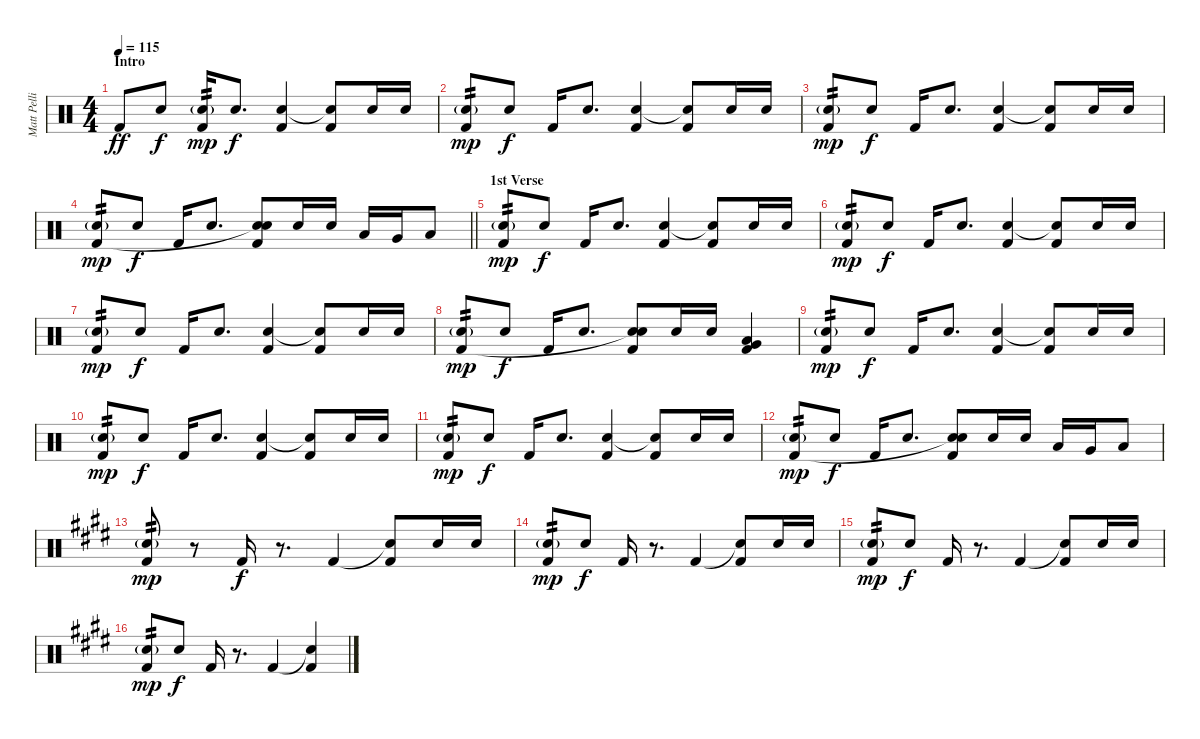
\track ("Matt Pellissier" "Matt Pelli") {instrument percussion}
\staff {score}
\articulation defaults
\ts (4 4)
\section ("" "Intro")
\tempo 115
\clef neutral
\ks c "Kick (hit) 2".8{dy ff} "Snare (hit) 2".8{dy f}
("Snare (hit) 2"{g} "Kick (hit) 2").16{tp 2 dy mp} "Snare (hit) 2".8{d dy f} ("Snare (hit) 2" "Kick (hit) 2").4 ("Snare (hit)"{t} "Kick (hit) 2").8 "Snare (hit) 2".16 "Snare (hit) 2".16 |
("Snare (hit) 2"{g} "Kick (hit) 2").8{tp 2 dy mp} "Snare (hit) 2".8{dy f} "Kick (hit) 2".16 "Snare (hit) 2".8{d} ("Snare (hit) 2" "Kick (hit) 2").4 ("Snare (hit)"{t} "Kick (hit) 2").8 "Snare (hit) 2".16 "Snare (hit) 2".16 |
("Snare (hit) 2"{g} "Kick (hit) 2").8{tp 2 dy mp} "Snare (hit) 2".8{dy f} "Kick (hit) 2".16 "Snare (hit) 2".8{d} ("Snare (hit) 2" "Kick (hit) 2").4 ("Snare (hit)"{t} "Kick (hit) 2").8 "Snare (hit) 2".16 "Snare (hit) 2".16 |
\barLineRight lightlight
("Snare (hit) 2"{g} "Kick (hit) 2").8{tp 2 dy mp} "Snare (hit) 2".8{dy f} "Kick (hit) 2".16 "Snare (hit) 2".8{d} ("Snare (hit) 2" "Snare (hit)"{t} "Kick (hit) 2").8 "Snare (hit) 2".16 "Snare (hit) 2".16 "Low Tom (hit)".16 "Very Low Tom (hit)".16 "Low Floor Tom (hit)".8 |
\section ("" "1st Verse")
("Snare (hit) 2"{g} "Kick (hit) 2").8{tp 2 dy mp} "Snare (hit) 2".8{dy f} "Kick (hit) 2".16 "Snare (hit) 2".8{d} ("Snare (hit) 2" "Kick (hit) 2").4 ("Snare (hit)"{t} "Kick (hit) 2").8 "Snare (hit) 2".16 "Snare (hit) 2".16 |
("Snare (hit) 2"{g} "Kick (hit) 2").8{tp 2 dy mp} "Snare (hit) 2".8{dy f} "Kick (hit) 2".16 "Snare (hit) 2".8{d} ("Snare (hit) 2" "Kick (hit) 2").4 ("Snare (hit)"{t} "Kick (hit) 2").8 "Snare (hit) 2".16 "Snare (hit) 2".16 |
("Snare (hit) 2"{g} "Kick (hit) 2").8{tp 2 dy mp} "Snare (hit) 2".8{dy f} "Kick (hit) 2".16 "Snare (hit) 2".8{d} ("Snare (hit) 2" "Kick (hit) 2").4 ("Snare (hit)"{t} "Kick (hit) 2").8 "Snare (hit) 2".16 "Snare (hit) 2".16 |
("Snare (hit) 2"{g} "Kick (hit) 2").8{tp 2 dy mp} "Snare (hit) 2".8{dy f} "Kick (hit) 2".16 "Snare (hit) 2".8{d} ("Snare (hit) 2" "Snare (hit)"{t} "Kick (hit) 2").8 "Snare (hit) 2".16 "Snare (hit) 2".16 ("Very Low Tom (hit)" "Low Floor Tom (hit)" "Kick (hit) 2").4 |
("Snare (hit) 2"{g} "Kick (hit) 2").8{tp 2 dy mp} "Snare (hit) 2".8{dy f} "Kick (hit) 2".16 "Snare (hit) 2".8{d} ("Snare (hit) 2" "Kick (hit) 2").4 ("Snare (hit)"{t} "Kick (hit) 2").8 "Snare (hit) 2".16 "Snare (hit) 2".16 |
("Snare (hit) 2"{g} "Kick (hit) 2").8{tp 2 dy mp} "Snare (hit) 2".8{dy f} "Kick (hit) 2".16 "Snare (hit) 2".8{d} ("Snare (hit) 2" "Kick (hit) 2").4 ("Snare (hit)"{t} "Kick (hit) 2").8 "Snare (hit) 2".16 "Snare (hit) 2".16 |
("Snare (hit) 2"{g} "Kick (hit) 2").8{tp 2 dy mp} "Snare (hit) 2".8{dy f} "Kick (hit) 2".16 "Snare (hit) 2".8{d} ("Snare (hit) 2" "Kick (hit) 2").4 ("Snare (hit)"{t} "Kick (hit) 2").8 "Snare (hit) 2".16 "Snare (hit) 2".16 |
("Snare (hit) 2"{g} "Kick (hit) 2").8{tp 2 dy mp} "Snare (hit) 2".8{dy f} "Kick (hit) 2".16 "Snare (hit) 2".8{d} ("Snare (hit) 2" "Snare (hit)"{t} "Kick (hit) 2").8 "Snare (hit) 2".16 "Snare (hit) 2".16 "Low Tom (hit)".16 "Very Low Tom (hit)".16 "Low Floor Tom (hit)".8 |
\ks e
("Snare (hit) 2"{g} "Kick (hit) 2").8{tp 2 dy mp} r.8 "Kick (hit) 2".16{dy f} r.8{d} "Kick (hit) 2".4 ("Snare (hit)"{t} "Kick (hit) 2").8 "Snare (hit) 2".16 "Snare (hit) 2".16 |
("Snare (hit) 2"{g} "Kick (hit) 2").8{tp 2 dy mp} "Snare (hit) 2".8{dy f} "Kick (hit) 2".16 r.8{d} "Kick (hit) 2".4 ("Snare (hit)"{t} "Kick (hit) 2").8 "Snare (hit) 2".16 "Snare (hit) 2".16 |
("Snare (hit) 2"{g} "Kick (hit) 2").8{tp 2 dy mp} "Snare (hit) 2".8{dy f} "Kick (hit) 2".16 r.8{d} "Kick (hit) 2".4 ("Snare (hit)"{t} "Kick (hit) 2").8 "Snare (hit) 2".16 "Snare (hit) 2".16 |
("Snare (hit) 2"{g} "Kick (hit) 2").8{tp 2 dy mp} "Snare (hit) 2".8{dy f} "Kick (hit) 2".16 r.8{d} "Kick (hit) 2".4 ("Snare (hit)"{t} "Kick (hit) 2").4
